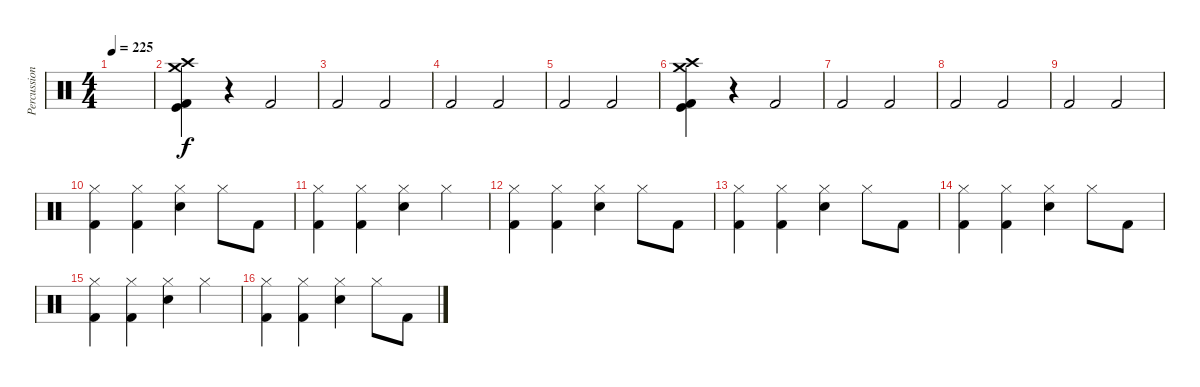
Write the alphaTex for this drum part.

\track ("Percussions" "Percussion") {instrument percussion}
\staff {score}
\articulation defaults
\ts (4 4)
\tempo 225
\clef neutral
\ks c
|
("Crash medium (hit)" "Crash high (hit)" "Kick (hit)" "Kick (hit) 2").4 r.4 "Kick (hit) 2".2 |
"Kick (hit) 2".2 "Kick (hit) 2".2 |
"Kick (hit) 2".2 "Kick (hit) 2".2 |
"Kick (hit) 2".2 "Kick (hit) 2".2 |
("Crash medium (hit)" "Crash high (hit)" "Kick (hit)" "Kick (hit) 2").4 r.4 "Kick (hit) 2".2 |
"Kick (hit) 2".2 "Kick (hit) 2".2 |
"Kick (hit) 2".2 "Kick (hit) 2".2 |
"Kick (hit) 2".2 "Kick (hit) 2".2 |
("Hi-Hat (closed)" "Kick (hit) 2").4 ("Hi-Hat (closed)" "Kick (hit) 2").4 ("Hi-Hat (closed)" "Electric Snare (hit)").4 "Hi-Hat (closed)".8 "Kick (hit) 2".8 |
("Hi-Hat (closed)" "Kick (hit) 2").4 ("Hi-Hat (closed)" "Kick (hit) 2").4 ("Hi-Hat (closed)" "Electric Snare (hit)").4 "Hi-Hat (closed)".4 |
("Hi-Hat (closed)" "Kick (hit) 2").4 ("Hi-Hat (closed)" "Kick (hit) 2").4 ("Hi-Hat (closed)" "Electric Snare (hit)").4 "Hi-Hat (closed)".8 "Kick (hit) 2".8 |
("Hi-Hat (closed)" "Kick (hit) 2").4 ("Hi-Hat (closed)" "Kick (hit) 2").4 ("Hi-Hat (closed)" "Electric Snare (hit)").4 "Hi-Hat (closed)".8 "Kick (hit) 2".8 |
("Hi-Hat (closed)" "Kick (hit) 2").4 ("Hi-Hat (closed)" "Kick (hit) 2").4 ("Hi-Hat (closed)" "Electric Snare (hit)").4 "Hi-Hat (closed)".8 "Kick (hit) 2".8 |
("Hi-Hat (closed)" "Kick (hit) 2").4 ("Hi-Hat (closed)" "Kick (hit) 2").4 ("Hi-Hat (closed)" "Electric Snare (hit)").4 "Hi-Hat (closed)".4 |
("Hi-Hat (closed)" "Kick (hit) 2").4 ("Hi-Hat (closed)" "Kick (hit) 2").4 ("Hi-Hat (closed)" "Electric Snare (hit)").4 "Hi-Hat (closed)".8 "Kick (hit) 2".8
